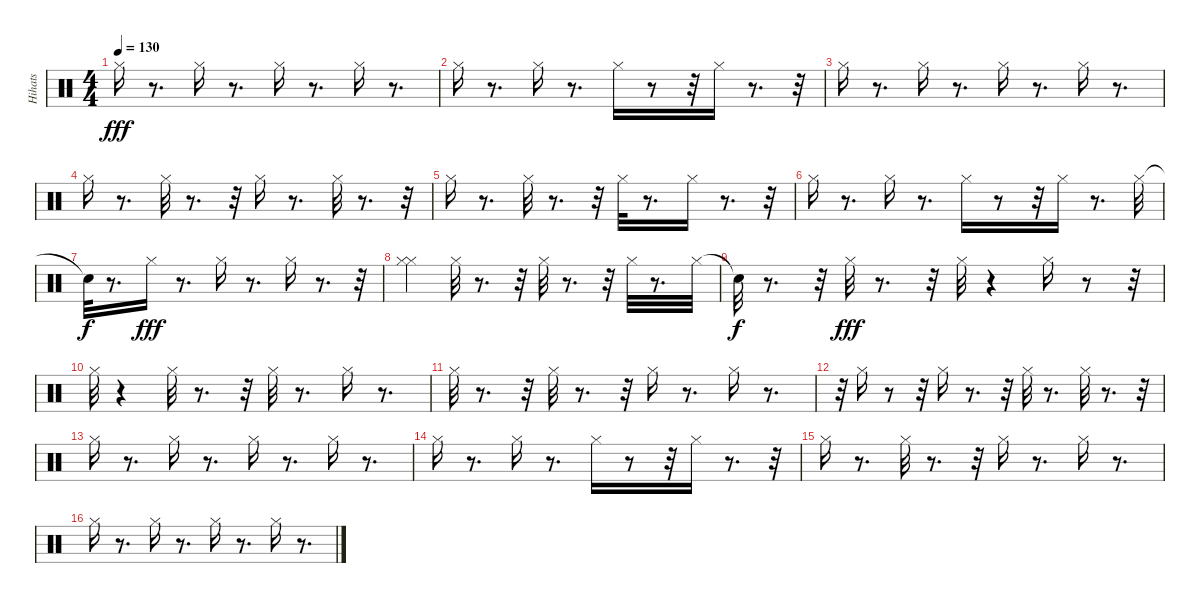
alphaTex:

\track ("Hihats" "Hihats") {instrument percussion}
\staff {score}
\articulation defaults
\ts (4 4)
\tempo 130
\clef neutral
\ks c "Hi-Hat (closed)".16{dy fff}
r.8{d} "Hi-Hat (closed)".16 r.8{d} "Hi-Hat (closed)".16 r.8{d} "Hi-Hat (closed)".16 r.8{d} |
"Hi-Hat (closed)".16 r.8{d} "Hi-Hat (closed)".16 r.8{d} "Hi-Hat (closed)".16 r.8 r.32 "Hi-Hat (closed)".16 r.8{d} r.32 |
"Hi-Hat (closed)".16 r.8{d} "Hi-Hat (closed)".16 r.8{d} "Hi-Hat (closed)".16 r.8{d} "Hi-Hat (closed)".16 r.8{d} |
"Hi-Hat (closed)".16 r.8{d} "Hi-Hat (closed)".32 r.8{d} r.32 "Hi-Hat (closed)".16 r.8{d} "Hi-Hat (closed)".32 r.8{d} r.32 |
"Hi-Hat (closed)".16 r.8{d} "Hi-Hat (closed)".32 r.8{d} r.32 "Hi-Hat (closed)".32 r.8{d} "Hi-Hat (closed)".16 r.8{d} r.32 |
"Hi-Hat (closed)".16 r.8{d} "Hi-Hat (closed)".16 r.8{d} "Hi-Hat (closed)".16 r.8 r.32 "Hi-Hat (closed)".16 r.8{d} "Hi-Hat (closed)".32 |
"Snare (hit)"{t}.32{dy f} r.8{d} "Hi-Hat (closed)".16{dy fff} r.8{d} "Hi-Hat (closed)".16 r.8{d} "Hi-Hat (closed)".16 r.8{d} r.32 |
("Hi-Hat (closed)" "Hi-Hat (closed)").4 "Hi-Hat (closed)".32 r.8{d} r.32 "Hi-Hat (closed)".32 r.8{d} r.32 "Hi-Hat (closed)".32 r.8{d} "Hi-Hat (closed)".32 |
"Snare (hit)"{t}.32{dy f} r.8{d} r.32 "Hi-Hat (closed)".32{dy fff} r.8{d} r.32 "Hi-Hat (closed)".32 r.4 "Hi-Hat (closed)".16 r.8 r.32 |
"Hi-Hat (closed)".32 r.4 "Hi-Hat (closed)".32 r.8{d} r.32 "Hi-Hat (closed)".32 r.8{d} "Hi-Hat (closed)".16 r.8{d} |
"Hi-Hat (closed)".32 r.8{d} r.32 "Hi-Hat (closed)".32 r.8{d} r.32 "Hi-Hat (closed)".16 r.8{d} "Hi-Hat (closed)".16 r.8{d} |
r.32 "Hi-Hat (closed)".16 r.8 r.32 "Hi-Hat (closed)".16 r.8{d} r.32 "Hi-Hat (closed)".32 r.8{d} "Hi-Hat (closed)".32 r.8{d} r.32 |
"Hi-Hat (closed)".16 r.8{d} "Hi-Hat (closed)".16 r.8{d} "Hi-Hat (closed)".16 r.8{d} "Hi-Hat (closed)".16 r.8{d} |
"Hi-Hat (closed)".16 r.8{d} "Hi-Hat (closed)".16 r.8{d} "Hi-Hat (closed)".16 r.8 r.32 "Hi-Hat (closed)".16 r.8{d} r.32 |
"Hi-Hat (closed)".16 r.8{d} "Hi-Hat (closed)".32 r.8{d} r.32 "Hi-Hat (closed)".16 r.8{d} "Hi-Hat (closed)".16 r.8{d} |
"Hi-Hat (closed)".16 r.8{d} "Hi-Hat (closed)".16 r.8{d} "Hi-Hat (closed)".16 r.8{d} "Hi-Hat (closed)".16 r.8{d}
